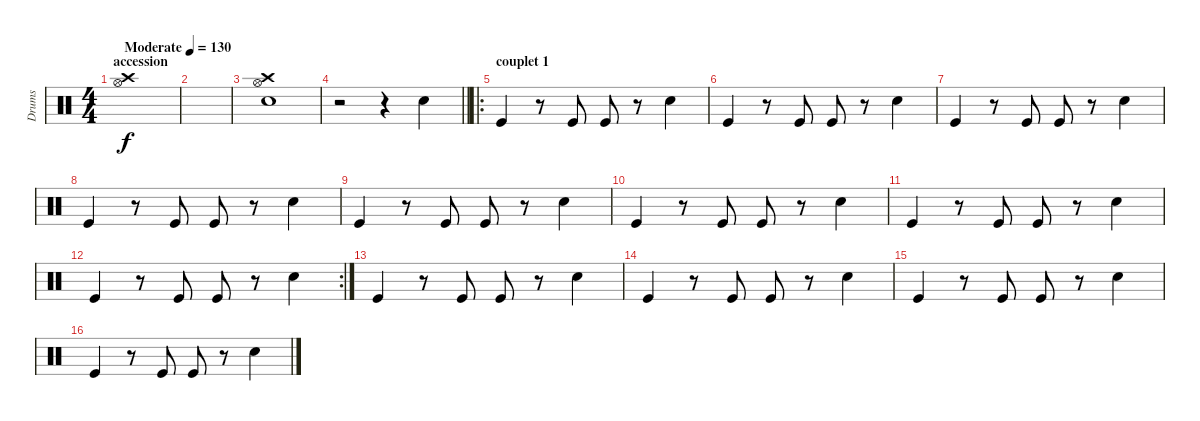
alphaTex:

\track ("Drums" "Drums") {instrument percussion}
\staff {score}
\articulation defaults
\ts (4 4)
\section ("" "accession")
\tempo (130 "Moderate")
\clef neutral
\ks c
("Crash high (hit)" "Hi-Hat (open)").1{dy f} |
|
("Snare (hit) 2" "Crash high (hit)" "Hi-Hat (open)").1 |
\barLineRight lightlight
r.2 r.4 "Snare (hit) 2".4 |
\ro
\section ("" "couplet 1")
"Kick (hit)".4 r.8 "Kick (hit)".8 "Kick (hit)".8 r.8 "Snare (hit) 2".4 |
"Kick (hit)".4 r.8 "Kick (hit)".8 "Kick (hit)".8 r.8 "Snare (hit) 2".4 |
"Kick (hit)".4 r.8 "Kick (hit)".8 "Kick (hit)".8 r.8 "Snare (hit) 2".4 |
"Kick (hit)".4 r.8 "Kick (hit)".8 "Kick (hit)".8 r.8 "Snare (hit) 2".4 |
"Kick (hit)".4 r.8 "Kick (hit)".8 "Kick (hit)".8 r.8 "Snare (hit) 2".4 |
"Kick (hit)".4 r.8 "Kick (hit)".8 "Kick (hit)".8 r.8 "Snare (hit) 2".4 |
"Kick (hit)".4 r.8 "Kick (hit)".8 "Kick (hit)".8 r.8 "Snare (hit) 2".4 |
\rc 2 "Kick (hit)".4
r.8 "Kick (hit)".8 "Kick (hit)".8 r.8 "Snare (hit) 2".4 |
"Kick (hit)".4 r.8 "Kick (hit)".8 "Kick (hit)".8 r.8 "Snare (hit) 2".4 |
"Kick (hit)".4 r.8 "Kick (hit)".8 "Kick (hit)".8 r.8 "Snare (hit) 2".4 |
"Kick (hit)".4 r.8 "Kick (hit)".8 "Kick (hit)".8 r.8 "Snare (hit) 2".4 |
"Kick (hit)".4 r.8 "Kick (hit)".8 "Kick (hit)".8 r.8 "Snare (hit) 2".4
